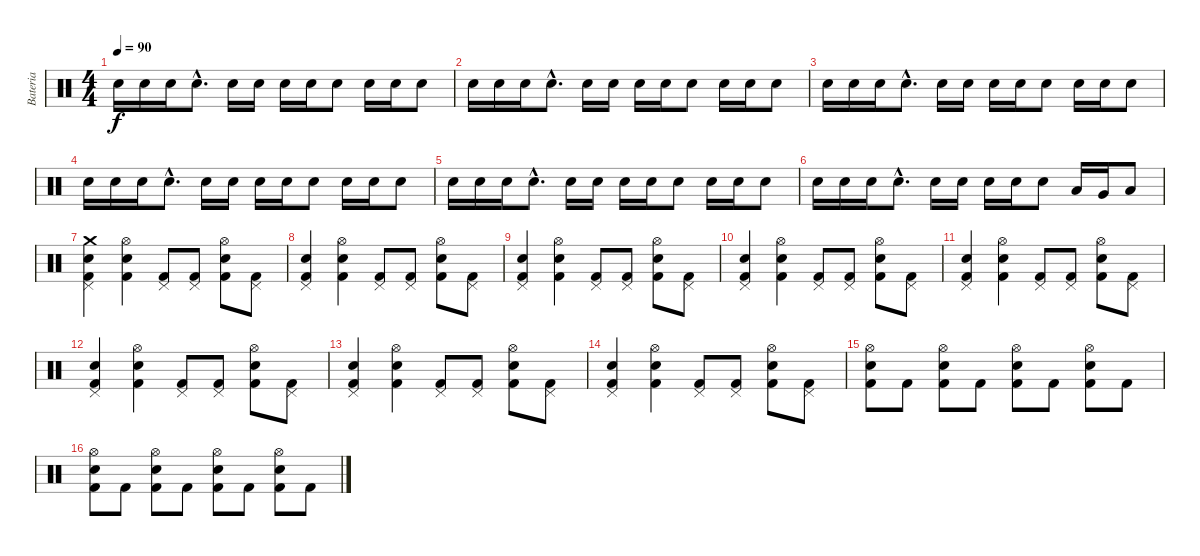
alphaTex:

\track ("Bateria" "Bateria") {instrument percussion}
\staff {score}
\articulation defaults
\ts (4 4)
\tempo 90
\clef neutral
\ks c "Electric Snare (hit)".16{dy f} "Electric Snare (hit)".16 "Electric Snare (hit)".16 "Electric Snare (hit)"{hac}.8{d} "Electric Snare (hit)".16 "Electric Snare (hit)".16 "Electric Snare (hit)".16 "Electric Snare (hit)".16 "Electric Snare (hit)".8 "Electric Snare (hit)".16 "Electric Snare (hit)".16 "Electric Snare (hit)".8
|
"Electric Snare (hit)".16 "Electric Snare (hit)".16 "Electric Snare (hit)".16 "Electric Snare (hit)"{hac}.8{d} "Electric Snare (hit)".16 "Electric Snare (hit)".16 "Electric Snare (hit)".16 "Electric Snare (hit)".16 "Electric Snare (hit)".8 "Electric Snare (hit)".16 "Electric Snare (hit)".16 "Electric Snare (hit)".8 |
"Electric Snare (hit)".16 "Electric Snare (hit)".16 "Electric Snare (hit)".16 "Electric Snare (hit)"{hac}.8{d} "Electric Snare (hit)".16 "Electric Snare (hit)".16 "Electric Snare (hit)".16 "Electric Snare (hit)".16 "Electric Snare (hit)".8 "Electric Snare (hit)".16 "Electric Snare (hit)".16 "Electric Snare (hit)".8 |
"Electric Snare (hit)".16 "Electric Snare (hit)".16 "Electric Snare (hit)".16 "Electric Snare (hit)"{hac}.8{d} "Electric Snare (hit)".16 "Electric Snare (hit)".16 "Electric Snare (hit)".16 "Electric Snare (hit)".16 "Electric Snare (hit)".8 "Electric Snare (hit)".16 "Electric Snare (hit)".16 "Electric Snare (hit)".8 |
"Electric Snare (hit)".16 "Electric Snare (hit)".16 "Electric Snare (hit)".16 "Electric Snare (hit)"{hac}.8{d} "Electric Snare (hit)".16 "Electric Snare (hit)".16 "Electric Snare (hit)".16 "Electric Snare (hit)".16 "Electric Snare (hit)".8 "Electric Snare (hit)".16 "Electric Snare (hit)".16 "Electric Snare (hit)".8 |
"Electric Snare (hit)".16 "Electric Snare (hit)".16 "Electric Snare (hit)".16 "Electric Snare (hit)"{hac}.8{d} "Electric Snare (hit)".16 "Electric Snare (hit)".16 "Electric Snare (hit)".16 "Electric Snare (hit)".16 "Electric Snare (hit)".8 "Low Tom (hit)".16 "Very Low Tom (hit)".16 "Low Floor Tom (hit)".8 |
("Kick (hit) 2" "Pedal Hi-Hat (hit)" "Electric Snare (hit)" "Crash medium (hit)").4 ("Hi-Hat (open)" "Kick (hit) 2" "Electric Snare (hit)").4 ("Kick (hit) 2" "Pedal Hi-Hat (hit)").8 ("Kick (hit) 2" "Pedal Hi-Hat (hit)").8 ("Kick (hit) 2" "Hi-Hat (open)" "Electric Snare (hit)").8 ("Kick (hit) 2" "Pedal Hi-Hat (hit)").8 |
("Kick (hit) 2" "Pedal Hi-Hat (hit)" "Electric Snare (hit)").4 ("Hi-Hat (open)" "Kick (hit) 2" "Electric Snare (hit)").4 ("Kick (hit) 2" "Pedal Hi-Hat (hit)").8 ("Kick (hit) 2" "Pedal Hi-Hat (hit)").8 ("Kick (hit) 2" "Hi-Hat (open)" "Electric Snare (hit)").8 ("Kick (hit) 2" "Pedal Hi-Hat (hit)").8 |
("Kick (hit) 2" "Pedal Hi-Hat (hit)" "Electric Snare (hit)").4 ("Hi-Hat (open)" "Kick (hit) 2" "Electric Snare (hit)").4 ("Kick (hit) 2" "Pedal Hi-Hat (hit)").8 ("Kick (hit) 2" "Pedal Hi-Hat (hit)").8 ("Kick (hit) 2" "Hi-Hat (open)" "Electric Snare (hit)").8 ("Kick (hit) 2" "Pedal Hi-Hat (hit)").8 |
("Kick (hit) 2" "Pedal Hi-Hat (hit)" "Electric Snare (hit)").4 ("Hi-Hat (open)" "Kick (hit) 2" "Electric Snare (hit)").4 ("Kick (hit) 2" "Pedal Hi-Hat (hit)").8 ("Kick (hit) 2" "Pedal Hi-Hat (hit)").8 ("Kick (hit) 2" "Hi-Hat (open)" "Electric Snare (hit)").8 ("Kick (hit) 2" "Pedal Hi-Hat (hit)").8 |
("Kick (hit) 2" "Pedal Hi-Hat (hit)" "Electric Snare (hit)").4 ("Hi-Hat (open)" "Kick (hit) 2" "Electric Snare (hit)").4 ("Kick (hit) 2" "Pedal Hi-Hat (hit)").8 ("Kick (hit) 2" "Pedal Hi-Hat (hit)").8 ("Kick (hit) 2" "Hi-Hat (open)" "Electric Snare (hit)").8 ("Kick (hit) 2" "Pedal Hi-Hat (hit)").8 |
("Kick (hit) 2" "Pedal Hi-Hat (hit)" "Electric Snare (hit)").4 ("Hi-Hat (open)" "Kick (hit) 2" "Electric Snare (hit)").4 ("Kick (hit) 2" "Pedal Hi-Hat (hit)").8 ("Kick (hit) 2" "Pedal Hi-Hat (hit)").8 ("Kick (hit) 2" "Hi-Hat (open)" "Electric Snare (hit)").8 ("Kick (hit) 2" "Pedal Hi-Hat (hit)").8 |
("Kick (hit) 2" "Pedal Hi-Hat (hit)" "Electric Snare (hit)").4 ("Hi-Hat (open)" "Kick (hit) 2" "Electric Snare (hit)").4 ("Kick (hit) 2" "Pedal Hi-Hat (hit)").8 ("Kick (hit) 2" "Pedal Hi-Hat (hit)").8 ("Kick (hit) 2" "Hi-Hat (open)" "Electric Snare (hit)").8 ("Kick (hit) 2" "Pedal Hi-Hat (hit)").8 |
("Kick (hit) 2" "Pedal Hi-Hat (hit)" "Electric Snare (hit)").4 ("Hi-Hat (open)" "Kick (hit) 2" "Electric Snare (hit)").4 ("Kick (hit) 2" "Pedal Hi-Hat (hit)").8 ("Kick (hit) 2" "Pedal Hi-Hat (hit)").8 ("Kick (hit) 2" "Hi-Hat (open)" "Electric Snare (hit)").8 ("Kick (hit) 2" "Pedal Hi-Hat (hit)").8 |
("Kick (hit) 2" "Hi-Hat (open)" "Electric Snare (hit)").8 "Kick (hit) 2".8 ("Hi-Hat (open)" "Kick (hit) 2" "Electric Snare (hit)").8 "Kick (hit) 2".8 ("Kick (hit) 2" "Electric Snare (hit)" "Hi-Hat (open)").8 "Kick (hit) 2".8 ("Kick (hit) 2" "Hi-Hat (open)" "Electric Snare (hit)").8 "Kick (hit) 2".8 |
("Kick (hit) 2" "Hi-Hat (open)" "Electric Snare (hit)").8 "Kick (hit) 2".8 ("Hi-Hat (open)" "Kick (hit) 2" "Electric Snare (hit)").8 "Kick (hit) 2".8 ("Kick (hit) 2" "Electric Snare (hit)" "Hi-Hat (open)").8 "Kick (hit) 2".8 ("Kick (hit) 2" "Hi-Hat (open)" "Electric Snare (hit)").8 "Kick (hit) 2".8
